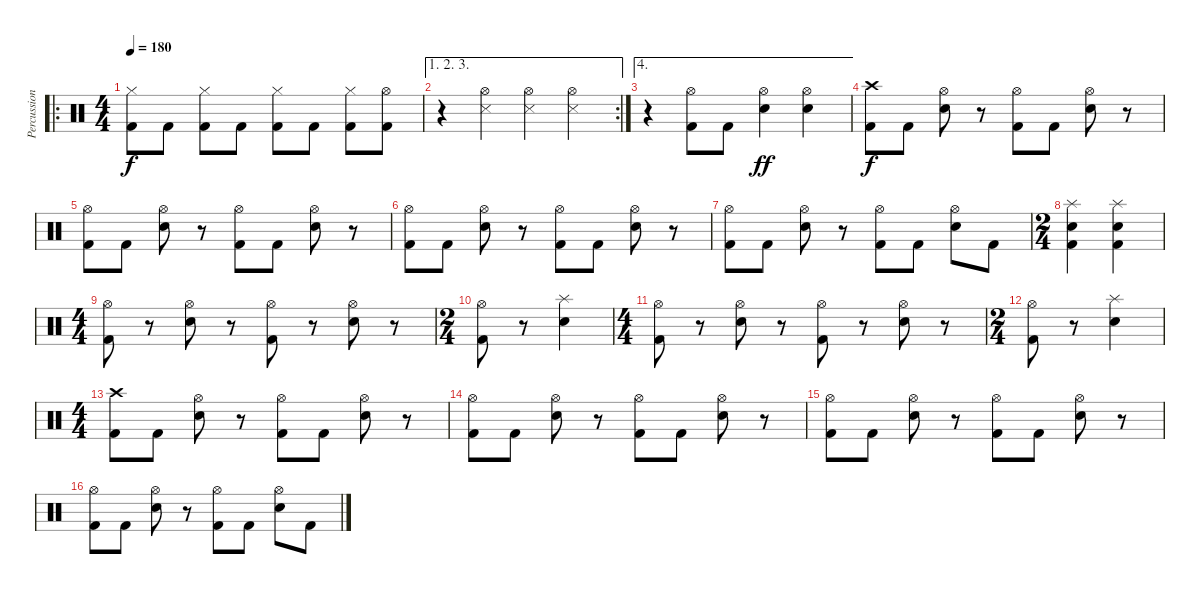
\track ("Percussion" "Percussion") {instrument percussion}
\staff {score}
\articulation defaults
\ro
\ts (4 4)
\tempo 180
\clef neutral
\ks c
("Hi-Hat (closed)" "Kick (hit) 2").8{dy f} "Kick (hit) 2".8 ("Hi-Hat (closed)" "Kick (hit) 2").8 "Kick (hit) 2".8 ("Hi-Hat (closed)" "Kick (hit) 2").8 "Kick (hit) 2".8 ("Hi-Hat (closed)" "Kick (hit) 2").8 ("Hi-Hat (open)" "Kick (hit) 2").8 |
\ae (1 2 3)
\rc 2
r.4 ("Hi-Hat (open)" "Snare (side stick) 3").4 ("Hi-Hat (open)" "Snare (side stick) 3").4 ("Hi-Hat (open)" "Snare (side stick) 3").4 |
\ae 4
r.4 ("Hi-Hat (open)" "Kick (hit) 2").8 "Kick (hit) 2".8 ("Hi-Hat (open)" "Electric Snare (hit)").4{dy ff} ("Hi-Hat (open)" "Electric Snare (hit)").4 |
("Crash high (hit)" "Kick (hit) 2").8{dy f} "Kick (hit) 2".8 ("Hi-Hat (open)" "Electric Snare (hit)").8 r.8 ("Hi-Hat (open)" "Kick (hit) 2").8 "Kick (hit) 2".8 ("Hi-Hat (open)" "Electric Snare (hit)").8 r.8 |
("Hi-Hat (open)" "Kick (hit) 2").8 "Kick (hit) 2".8 ("Hi-Hat (open)" "Electric Snare (hit)").8 r.8 ("Hi-Hat (open)" "Kick (hit) 2").8 "Kick (hit) 2".8 ("Hi-Hat (open)" "Electric Snare (hit)").8 r.8 |
("Hi-Hat (open)" "Kick (hit) 2").8 "Kick (hit) 2".8 ("Hi-Hat (open)" "Electric Snare (hit)").8 r.8 ("Hi-Hat (open)" "Kick (hit) 2").8 "Kick (hit) 2".8 ("Hi-Hat (open)" "Electric Snare (hit)").8 r.8 |
("Hi-Hat (open)" "Kick (hit) 2").8 "Kick (hit) 2".8 ("Hi-Hat (open)" "Electric Snare (hit)").8 r.8 ("Hi-Hat (open)" "Kick (hit) 2").8 "Kick (hit) 2".8 ("Hi-Hat (open)" "Electric Snare (hit)").8 "Kick (hit) 2".8 |
\ts (2 4)
("Splash (hit)" "Electric Snare (hit)" "Kick (hit) 2").4 ("Splash (hit)" "Electric Snare (hit)" "Kick (hit) 2").4 |
\ts (4 4)
("Hi-Hat (open)" "Kick (hit) 2").8 r.8 ("Hi-Hat (open)" "Electric Snare (hit)").8 r.8 ("Hi-Hat (open)" "Kick (hit) 2").8 r.8 ("Hi-Hat (open)" "Electric Snare (hit)").8 r.8 |
\ts (2 4)
("Hi-Hat (open)" "Kick (hit) 2").8 r.8 ("Splash (hit)" "Electric Snare (hit)").4 |
\ts (4 4)
("Hi-Hat (open)" "Kick (hit) 2").8 r.8 ("Hi-Hat (open)" "Electric Snare (hit)").8 r.8 ("Hi-Hat (open)" "Kick (hit) 2").8 r.8 ("Hi-Hat (open)" "Electric Snare (hit)").8 r.8 |
\ts (2 4)
("Hi-Hat (open)" "Kick (hit) 2").8 r.8 ("Splash (hit)" "Electric Snare (hit)").4 |
\ts (4 4)
("Crash high (hit)" "Kick (hit) 2").8 "Kick (hit) 2".8 ("Hi-Hat (open)" "Electric Snare (hit)").8 r.8 ("Hi-Hat (open)" "Kick (hit) 2").8 "Kick (hit) 2".8 ("Hi-Hat (open)" "Electric Snare (hit)").8 r.8 |
("Hi-Hat (open)" "Kick (hit) 2").8 "Kick (hit) 2".8 ("Hi-Hat (open)" "Electric Snare (hit)").8 r.8 ("Hi-Hat (open)" "Kick (hit) 2").8 "Kick (hit) 2".8 ("Hi-Hat (open)" "Electric Snare (hit)").8 r.8 |
("Hi-Hat (open)" "Kick (hit) 2").8 "Kick (hit) 2".8 ("Hi-Hat (open)" "Electric Snare (hit)").8 r.8 ("Hi-Hat (open)" "Kick (hit) 2").8 "Kick (hit) 2".8 ("Hi-Hat (open)" "Electric Snare (hit)").8 r.8 |
("Hi-Hat (open)" "Kick (hit) 2").8 "Kick (hit) 2".8 ("Hi-Hat (open)" "Electric Snare (hit)").8 r.8 ("Hi-Hat (open)" "Kick (hit) 2").8 "Kick (hit) 2".8 ("Hi-Hat (open)" "Electric Snare (hit)").8 "Kick (hit) 2".8
